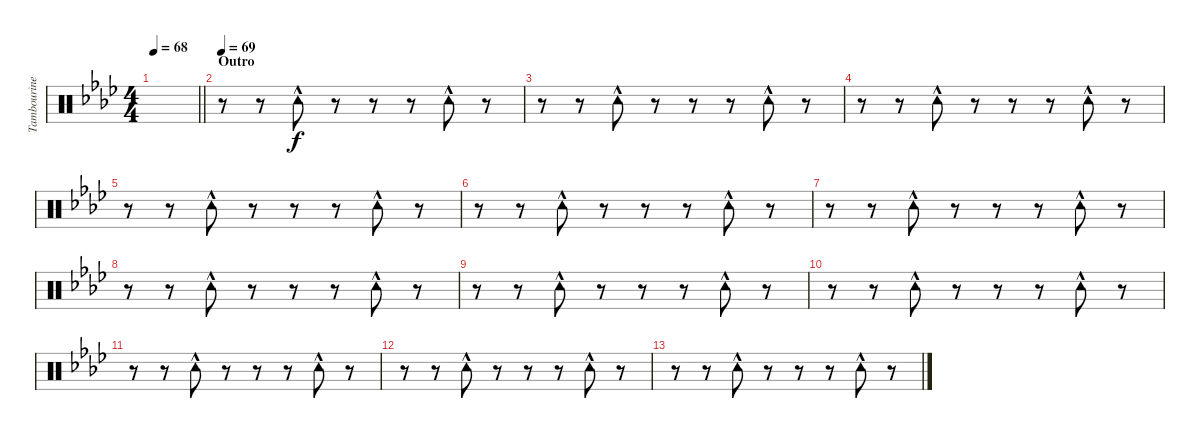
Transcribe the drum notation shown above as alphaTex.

\track ("Tambourine" "Tambourine") {instrument percussion}
\staff {score}
\articulation defaults
\ts (4 4)
\tempo 68
\clef neutral
\barLineRight lightlight
\ks ab
|
\section ("" "Outro")
\tempo 69
r.8 r.8 "Tambourine (hit)"{hac}.8 r.8 r.8 r.8 "Tambourine (hit)"{hac}.8 r.8 |
r.8 r.8 "Tambourine (hit)"{hac}.8 r.8 r.8 r.8 "Tambourine (hit)"{hac}.8 r.8 |
r.8 r.8 "Tambourine (hit)"{hac}.8 r.8 r.8 r.8 "Tambourine (hit)"{hac}.8 r.8 |
r.8 r.8 "Tambourine (hit)"{hac}.8 r.8 r.8 r.8 "Tambourine (hit)"{hac}.8 r.8 |
r.8 r.8 "Tambourine (hit)"{hac}.8 r.8 r.8 r.8 "Tambourine (hit)"{hac}.8 r.8 |
r.8 r.8 "Tambourine (hit)"{hac}.8 r.8 r.8 r.8 "Tambourine (hit)"{hac}.8 r.8 |
r.8 r.8 "Tambourine (hit)"{hac}.8 r.8 r.8 r.8 "Tambourine (hit)"{hac}.8 r.8 |
r.8 r.8 "Tambourine (hit)"{hac}.8 r.8 r.8 r.8 "Tambourine (hit)"{hac}.8 r.8 |
r.8 r.8 "Tambourine (hit)"{hac}.8 r.8 r.8 r.8 "Tambourine (hit)"{hac}.8 r.8 |
r.8 r.8 "Tambourine (hit)"{hac}.8 r.8 r.8 r.8 "Tambourine (hit)"{hac}.8 r.8 |
r.8 r.8 "Tambourine (hit)"{hac}.8 r.8 r.8 r.8 "Tambourine (hit)"{hac}.8 r.8 |
r.8 r.8 "Tambourine (hit)"{hac}.8 r.8 r.8 r.8 "Tambourine (hit)"{hac}.8 r.8
